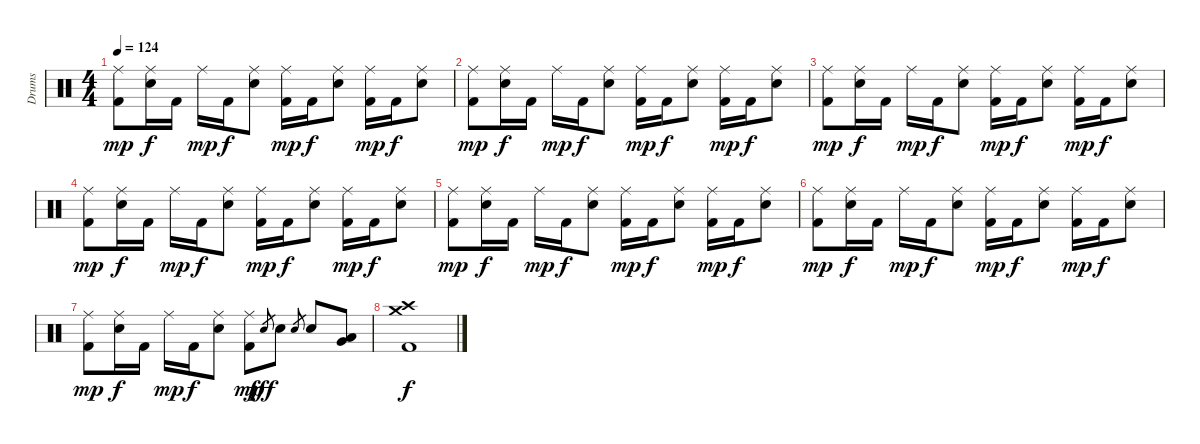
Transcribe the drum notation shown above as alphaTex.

\track ("Drums" "Drums") {instrument percussion}
\staff {score}
\articulation defaults
\ts (4 4)
\tempo 124
\clef neutral
\ks c
("Ride (middle)" "Kick (hit) 2").8{dy mp} ("Ride (middle)" "Snare (hit) 2").16{dy f} "Kick (hit) 2".16 "Ride (middle)".16{dy mp} "Kick (hit) 2".16{dy f} ("Ride (middle)" "Snare (hit) 2").8 ("Ride (middle)" "Kick (hit) 2").16{dy mp} "Kick (hit) 2".16{dy f} ("Ride (middle)" "Snare (hit) 2").8 ("Ride (middle)" "Kick (hit) 2").16{dy mp} "Kick (hit) 2".16{dy f} ("Ride (middle)" "Snare (hit) 2").8 |
("Ride (middle)" "Kick (hit) 2").8{dy mp} ("Ride (middle)" "Snare (hit) 2").16{dy f} "Kick (hit) 2".16 "Ride (middle)".16{dy mp} "Kick (hit) 2".16{dy f} ("Ride (middle)" "Snare (hit) 2").8 ("Ride (middle)" "Kick (hit) 2").16{dy mp} "Kick (hit) 2".16{dy f} ("Ride (middle)" "Snare (hit) 2").8 ("Ride (middle)" "Kick (hit) 2").16{dy mp} "Kick (hit) 2".16{dy f} ("Ride (middle)" "Snare (hit) 2").8 |
("Ride (middle)" "Kick (hit) 2").8{dy mp} ("Ride (middle)" "Snare (hit) 2").16{dy f} "Kick (hit) 2".16 "Ride (middle)".16{dy mp} "Kick (hit) 2".16{dy f} ("Ride (middle)" "Snare (hit) 2").8 ("Ride (middle)" "Kick (hit) 2").16{dy mp} "Kick (hit) 2".16{dy f} ("Ride (middle)" "Snare (hit) 2").8 ("Ride (middle)" "Kick (hit) 2").16{dy mp} "Kick (hit) 2".16{dy f} ("Ride (middle)" "Snare (hit) 2").8 |
("Ride (middle)" "Kick (hit) 2").8{dy mp} ("Ride (middle)" "Snare (hit) 2").16{dy f} "Kick (hit) 2".16 "Ride (middle)".16{dy mp} "Kick (hit) 2".16{dy f} ("Ride (middle)" "Snare (hit) 2").8 ("Ride (middle)" "Kick (hit) 2").16{dy mp} "Kick (hit) 2".16{dy f} ("Ride (middle)" "Snare (hit) 2").8 ("Ride (middle)" "Kick (hit) 2").16{dy mp} "Kick (hit) 2".16{dy f} ("Ride (middle)" "Snare (hit) 2").8 |
("Ride (middle)" "Kick (hit) 2").8{dy mp} ("Ride (middle)" "Snare (hit) 2").16{dy f} "Kick (hit) 2".16 "Ride (middle)".16{dy mp} "Kick (hit) 2".16{dy f} ("Ride (middle)" "Snare (hit) 2").8 ("Ride (middle)" "Kick (hit) 2").16{dy mp} "Kick (hit) 2".16{dy f} ("Ride (middle)" "Snare (hit) 2").8 ("Ride (middle)" "Kick (hit) 2").16{dy mp} "Kick (hit) 2".16{dy f} ("Ride (middle)" "Snare (hit) 2").8 |
("Ride (middle)" "Kick (hit) 2").8{dy mp} ("Ride (middle)" "Snare (hit) 2").16{dy f} "Kick (hit) 2".16 "Ride (middle)".16{dy mp} "Kick (hit) 2".16{dy f} ("Ride (middle)" "Snare (hit) 2").8 ("Ride (middle)" "Kick (hit) 2").16{dy mp} "Kick (hit) 2".16{dy f} ("Ride (middle)" "Snare (hit) 2").8 ("Ride (middle)" "Kick (hit) 2").16{dy mp} "Kick (hit) 2".16{dy f} ("Ride (middle)" "Snare (hit) 2").8 |
("Ride (middle)" "Kick (hit) 2").8{dy mp} ("Ride (middle)" "Snare (hit) 2").16{dy f} "Kick (hit) 2".16 "Ride (middle)".16{dy mp} "Kick (hit) 2".16{dy f} ("Ride (middle)" "Snare (hit) 2").8 ("Ride (middle)" "Kick (hit) 2").8{dy mp} "Snare (hit) 2".8{gr dy fff} "Snare (hit) 2".8 "Snare (hit) 2".8{gr} "Snare (hit) 2".8 ("Low Tom (hit)" "Very Low Tom (hit)").8 |
("Crash medium (hit)" "Crash high (hit)" "Kick (hit) 2").1{dy f}
